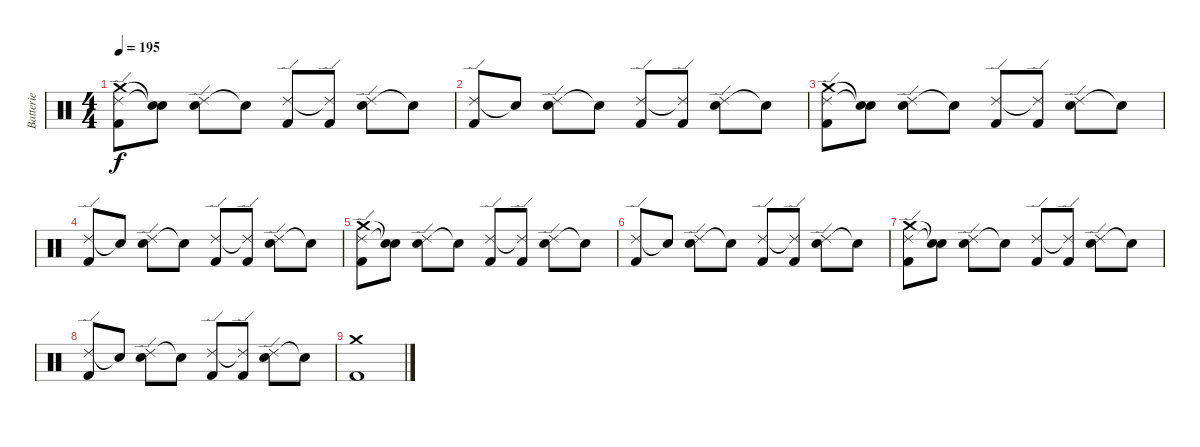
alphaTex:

\track ("Batterie" "Batterie") {instrument percussion}
\staff {score}
\articulation defaults
\ts (4 4)
\tempo 195
\clef neutral
\ks c
("Crash medium (hit)" "Ride (edge) 2" "Kick (hit) 2").8{dy f} ("Snare (hit)"{t} "Snare (hit)"{t}).8 ("Ride (edge) 2" "Electric Snare (hit)").8 "Snare (hit)"{t}.8 ("Ride (edge) 2" "Kick (hit) 2").8 ("Ride (edge) 2"{t} "Kick (hit) 2").8 ("Ride (edge) 2" "Electric Snare (hit)").8 "Snare (hit)"{t}.8 |
("Ride (edge) 2" "Kick (hit) 2").8 "Snare (hit)"{t}.8 ("Ride (edge) 2" "Electric Snare (hit)").8 "Snare (hit)"{t}.8 ("Ride (edge) 2" "Kick (hit) 2").8 ("Ride (edge) 2"{t} "Kick (hit) 2").8 ("Ride (edge) 2" "Electric Snare (hit)").8 "Snare (hit)"{t}.8 |
("Crash medium (hit)" "Ride (edge) 2" "Kick (hit) 2").8 ("Snare (hit)"{t} "Snare (hit)"{t}).8 ("Ride (edge) 2" "Electric Snare (hit)").8 "Snare (hit)"{t}.8 ("Ride (edge) 2" "Kick (hit) 2").8 ("Ride (edge) 2"{t} "Kick (hit) 2").8 ("Ride (edge) 2" "Electric Snare (hit)").8 "Snare (hit)"{t}.8 |
("Ride (edge) 2" "Kick (hit) 2").8 "Snare (hit)"{t}.8 ("Ride (edge) 2" "Electric Snare (hit)").8 "Snare (hit)"{t}.8 ("Ride (edge) 2" "Kick (hit) 2").8 ("Ride (edge) 2"{t} "Kick (hit) 2").8 ("Ride (edge) 2" "Electric Snare (hit)").8 "Snare (hit)"{t}.8 |
("Crash medium (hit)" "Ride (edge) 2" "Kick (hit) 2").8 ("Snare (hit)"{t} "Snare (hit)"{t}).8 ("Ride (edge) 2" "Electric Snare (hit)").8 "Snare (hit)"{t}.8 ("Ride (edge) 2" "Kick (hit) 2").8 ("Ride (edge) 2"{t} "Kick (hit) 2").8 ("Ride (edge) 2" "Electric Snare (hit)").8 "Snare (hit)"{t}.8 |
("Ride (edge) 2" "Kick (hit) 2").8 "Snare (hit)"{t}.8 ("Ride (edge) 2" "Electric Snare (hit)").8 "Snare (hit)"{t}.8 ("Ride (edge) 2" "Kick (hit) 2").8 ("Ride (edge) 2"{t} "Kick (hit) 2").8 ("Ride (edge) 2" "Electric Snare (hit)").8 "Snare (hit)"{t}.8 |
("Crash medium (hit)" "Ride (edge) 2" "Kick (hit) 2").8 ("Snare (hit)"{t} "Snare (hit)"{t}).8 ("Ride (edge) 2" "Electric Snare (hit)").8 "Snare (hit)"{t}.8 ("Ride (edge) 2" "Kick (hit) 2").8 ("Ride (edge) 2"{t} "Kick (hit) 2").8 ("Ride (edge) 2" "Electric Snare (hit)").8 "Snare (hit)"{t}.8 |
("Ride (edge) 2" "Kick (hit) 2").8 "Snare (hit)"{t}.8 ("Ride (edge) 2" "Electric Snare (hit)").8 "Snare (hit)"{t}.8 ("Ride (edge) 2" "Kick (hit) 2").8 ("Ride (edge) 2"{t} "Kick (hit) 2").8 ("Ride (edge) 2" "Electric Snare (hit)").8 "Snare (hit)"{t}.8 |
("Crash medium (hit)" "Kick (hit) 2").1
